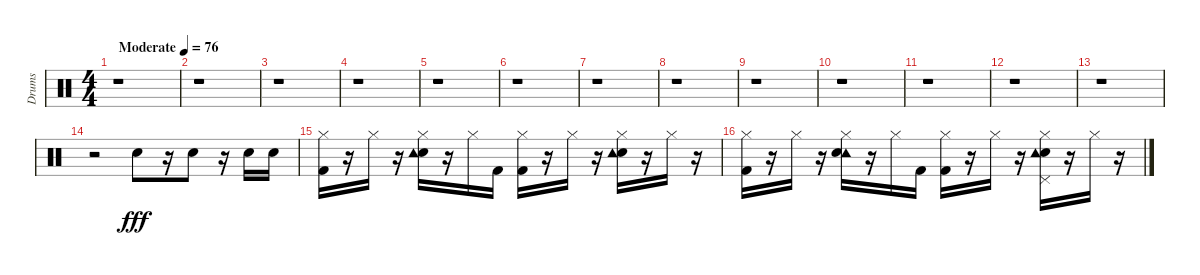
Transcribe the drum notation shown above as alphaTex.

\track ("Drums" "Drums") {instrument percussion}
\staff {score}
\articulation defaults
\ts (4 4)
\tempo (76 "Moderate")
\clef neutral
\ks c
r.1{dy fff} |
r.1 |
r.1 |
r.1 |
r.1 |
r.1 |
r.1 |
r.1 |
r.1 |
r.1 |
r.1 |
r.1 |
r.1 |
r.2 "Electric Snare (hit)".8 r.16 "Electric Snare (hit)".8 r.16 "Electric Snare (hit)".16 "Electric Snare (hit)".16 |
("Kick (hit) 2" "Hi-Hat (closed)").16 r.16 "Hi-Hat (closed)".16 r.16 ("Hi-Hat (closed)" "Electric Snare (hit)" "Tambourine (hit)").16 r.16 "Hi-Hat (closed)".16 "Kick (hit) 2".16 ("Kick (hit) 2" "Hi-Hat (closed)").16 r.16 "Hi-Hat (closed)".16 r.16 ("Electric Snare (hit)" "Hi-Hat (closed)" "Tambourine (hit)").16 r.16 "Hi-Hat (closed)".16 r.16 |
("Hi-Hat (closed)" "Kick (hit) 2").16 r.16 "Hi-Hat (closed)".16 r.16 ("Hi-Hat (closed)" "Tambourine (hit)" "Electric Snare (hit)").16 r.16 "Hi-Hat (closed)".16 "Kick (hit) 2".16 ("Hi-Hat (closed)" "Kick (hit) 2").16 r.16 "Hi-Hat (closed)".16 r.16 ("Electric Snare (hit)" "Tambourine (hit)" "Hi-Hat (closed)" "Pedal Hi-Hat (hit)").16 r.16 "Hi-Hat (closed)".16 r.16
